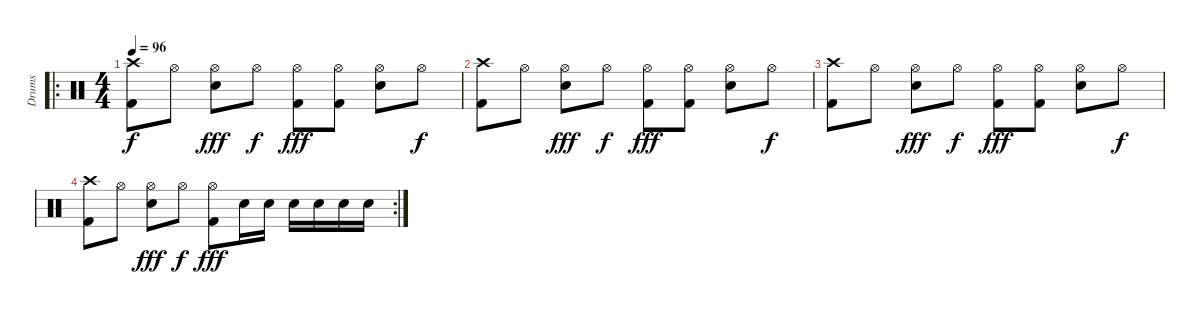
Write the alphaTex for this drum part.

\track ("Drums" "Drums") {instrument percussion}
\staff {score}
\articulation defaults
\ro
\ts (4 4)
\tempo 96
\clef neutral
\ks c
("Crash high (hit)" "Kick (hit) 2").8{dy f} "Hi-Hat (open)".8 ("Hi-Hat (open)" "Electric Snare (hit)").8{dy fff} "Hi-Hat (open)".8{dy f} ("Hi-Hat (open)" "Kick (hit) 2").8{dy fff} ("Hi-Hat (open)" "Kick (hit) 2").8 ("Hi-Hat (open)" "Electric Snare (hit)").8 "Hi-Hat (open)".8{dy f} |
("Crash high (hit)" "Kick (hit) 2").8 "Hi-Hat (open)".8 ("Hi-Hat (open)" "Electric Snare (hit)").8{dy fff} "Hi-Hat (open)".8{dy f} ("Hi-Hat (open)" "Kick (hit) 2").8{dy fff} ("Hi-Hat (open)" "Kick (hit) 2").8 ("Hi-Hat (open)" "Electric Snare (hit)").8 "Hi-Hat (open)".8{dy f} |
("Crash high (hit)" "Kick (hit) 2").8 "Hi-Hat (open)".8 ("Hi-Hat (open)" "Electric Snare (hit)").8{dy fff} "Hi-Hat (open)".8{dy f} ("Hi-Hat (open)" "Kick (hit) 2").8{dy fff} ("Hi-Hat (open)" "Kick (hit) 2").8 ("Hi-Hat (open)" "Electric Snare (hit)").8 "Hi-Hat (open)".8{dy f} |
\rc 2
("Crash high (hit)" "Kick (hit) 2").8 "Hi-Hat (open)".8 ("Hi-Hat (open)" "Electric Snare (hit)").8{dy fff} "Hi-Hat (open)".8{dy f} ("Hi-Hat (open)" "Kick (hit) 2").8{dy fff} "Electric Snare (hit)".16 "Electric Snare (hit)".16 "Electric Snare (hit)".16 "Electric Snare (hit)".16 "Electric Snare (hit)".16 "Electric Snare (hit)".16
